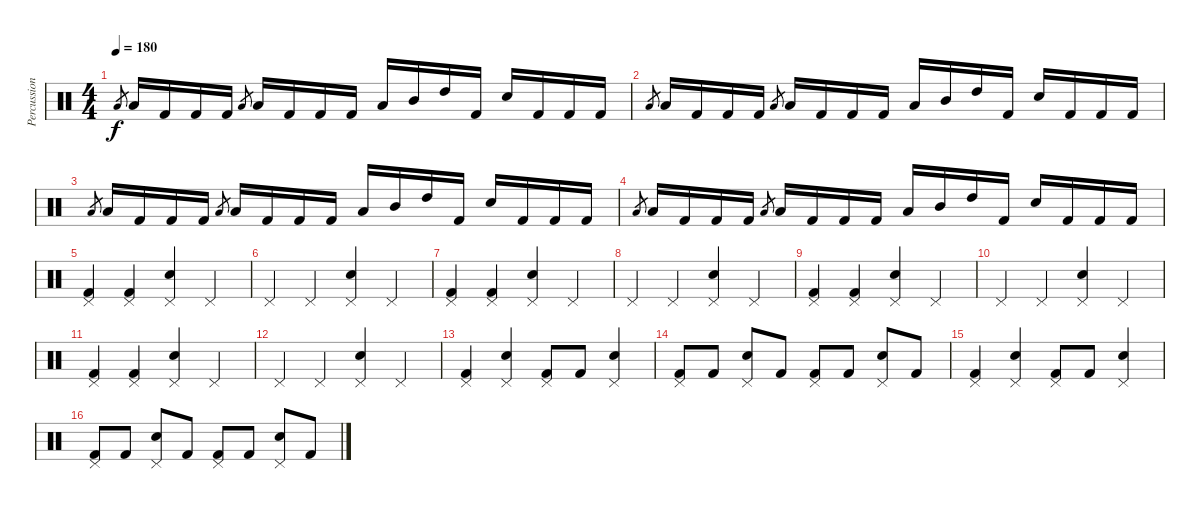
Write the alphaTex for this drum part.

\track ("Percussion" "Percussion") {instrument percussion}
\staff {score}
\articulation defaults
\ts (4 4)
\tempo 180
\clef neutral
\ks c "Low Tom (hit)".8{gr dy f} "Low Tom (hit)".16 "Kick (hit) 2".16 "Kick (hit) 2".16 "Kick (hit) 2".16 "Low Tom (hit)".8{gr} "Low Tom (hit)".16 "Kick (hit) 2".16 "Kick (hit) 2".16 "Kick (hit) 2".16 "Low Tom (hit)".16 "Mid Tom (hit)".16 "High Tom (hit)".16 "Kick (hit) 2".16 "Electric Snare (hit)".16 "Kick (hit) 2".16 "Kick (hit) 2".16 "Kick (hit) 2".16
|
"Low Tom (hit)".8{gr} "Low Tom (hit)".16 "Kick (hit) 2".16 "Kick (hit) 2".16 "Kick (hit) 2".16 "Low Tom (hit)".8{gr} "Low Tom (hit)".16 "Kick (hit) 2".16 "Kick (hit) 2".16 "Kick (hit) 2".16 "Low Tom (hit)".16 "Mid Tom (hit)".16 "High Tom (hit)".16 "Kick (hit) 2".16 "Electric Snare (hit)".16 "Kick (hit) 2".16 "Kick (hit) 2".16 "Kick (hit) 2".16 |
"Low Tom (hit)".8{gr} "Low Tom (hit)".16 "Kick (hit) 2".16 "Kick (hit) 2".16 "Kick (hit) 2".16 "Low Tom (hit)".8{gr} "Low Tom (hit)".16 "Kick (hit) 2".16 "Kick (hit) 2".16 "Kick (hit) 2".16 "Low Tom (hit)".16 "Mid Tom (hit)".16 "High Tom (hit)".16 "Kick (hit) 2".16 "Electric Snare (hit)".16 "Kick (hit) 2".16 "Kick (hit) 2".16 "Kick (hit) 2".16 |
"Low Tom (hit)".8{gr} "Low Tom (hit)".16 "Kick (hit) 2".16 "Kick (hit) 2".16 "Kick (hit) 2".16 "Low Tom (hit)".8{gr} "Low Tom (hit)".16 "Kick (hit) 2".16 "Kick (hit) 2".16 "Kick (hit) 2".16 "Low Tom (hit)".16 "Mid Tom (hit)".16 "High Tom (hit)".16 "Kick (hit) 2".16 "Electric Snare (hit)".16 "Kick (hit) 2".16 "Kick (hit) 2".16 "Kick (hit) 2".16 |
("Kick (hit) 2" "Pedal Hi-Hat (hit)").4 ("Kick (hit) 2" "Pedal Hi-Hat (hit)").4 ("Electric Snare (hit)" "Pedal Hi-Hat (hit)").4 "Pedal Hi-Hat (hit)".4 |
"Pedal Hi-Hat (hit)".4 "Pedal Hi-Hat (hit)".4 ("Electric Snare (hit)" "Pedal Hi-Hat (hit)").4 "Pedal Hi-Hat (hit)".4 |
("Kick (hit) 2" "Pedal Hi-Hat (hit)").4 ("Kick (hit) 2" "Pedal Hi-Hat (hit)").4 ("Electric Snare (hit)" "Pedal Hi-Hat (hit)").4 "Pedal Hi-Hat (hit)".4 |
"Pedal Hi-Hat (hit)".4 "Pedal Hi-Hat (hit)".4 ("Electric Snare (hit)" "Pedal Hi-Hat (hit)").4 "Pedal Hi-Hat (hit)".4 |
("Kick (hit) 2" "Pedal Hi-Hat (hit)").4 ("Kick (hit) 2" "Pedal Hi-Hat (hit)").4 ("Electric Snare (hit)" "Pedal Hi-Hat (hit)").4 "Pedal Hi-Hat (hit)".4 |
"Pedal Hi-Hat (hit)".4 "Pedal Hi-Hat (hit)".4 ("Electric Snare (hit)" "Pedal Hi-Hat (hit)").4 "Pedal Hi-Hat (hit)".4 |
("Kick (hit) 2" "Pedal Hi-Hat (hit)").4 ("Kick (hit) 2" "Pedal Hi-Hat (hit)").4 ("Electric Snare (hit)" "Pedal Hi-Hat (hit)").4 "Pedal Hi-Hat (hit)".4 |
"Pedal Hi-Hat (hit)".4 "Pedal Hi-Hat (hit)".4 ("Electric Snare (hit)" "Pedal Hi-Hat (hit)").4 "Pedal Hi-Hat (hit)".4 |
("Kick (hit) 2" "Pedal Hi-Hat (hit)").4 ("Electric Snare (hit)" "Pedal Hi-Hat (hit)").4 ("Kick (hit) 2" "Pedal Hi-Hat (hit)").8 "Kick (hit) 2".8 ("Electric Snare (hit)" "Pedal Hi-Hat (hit)").4 |
("Kick (hit) 2" "Pedal Hi-Hat (hit)").8 "Kick (hit) 2".8 ("Electric Snare (hit)" "Pedal Hi-Hat (hit)").8 "Kick (hit) 2".8 ("Kick (hit) 2" "Pedal Hi-Hat (hit)").8 "Kick (hit) 2".8 ("Electric Snare (hit)" "Pedal Hi-Hat (hit)").8 "Kick (hit) 2".8 |
("Kick (hit) 2" "Pedal Hi-Hat (hit)").4 ("Electric Snare (hit)" "Pedal Hi-Hat (hit)").4 ("Kick (hit) 2" "Pedal Hi-Hat (hit)").8 "Kick (hit) 2".8 ("Electric Snare (hit)" "Pedal Hi-Hat (hit)").4 |
("Kick (hit) 2" "Pedal Hi-Hat (hit)").8 "Kick (hit) 2".8 ("Electric Snare (hit)" "Pedal Hi-Hat (hit)").8 "Kick (hit) 2".8 ("Kick (hit) 2" "Pedal Hi-Hat (hit)").8 "Kick (hit) 2".8 ("Electric Snare (hit)" "Pedal Hi-Hat (hit)").8 "Kick (hit) 2".8
